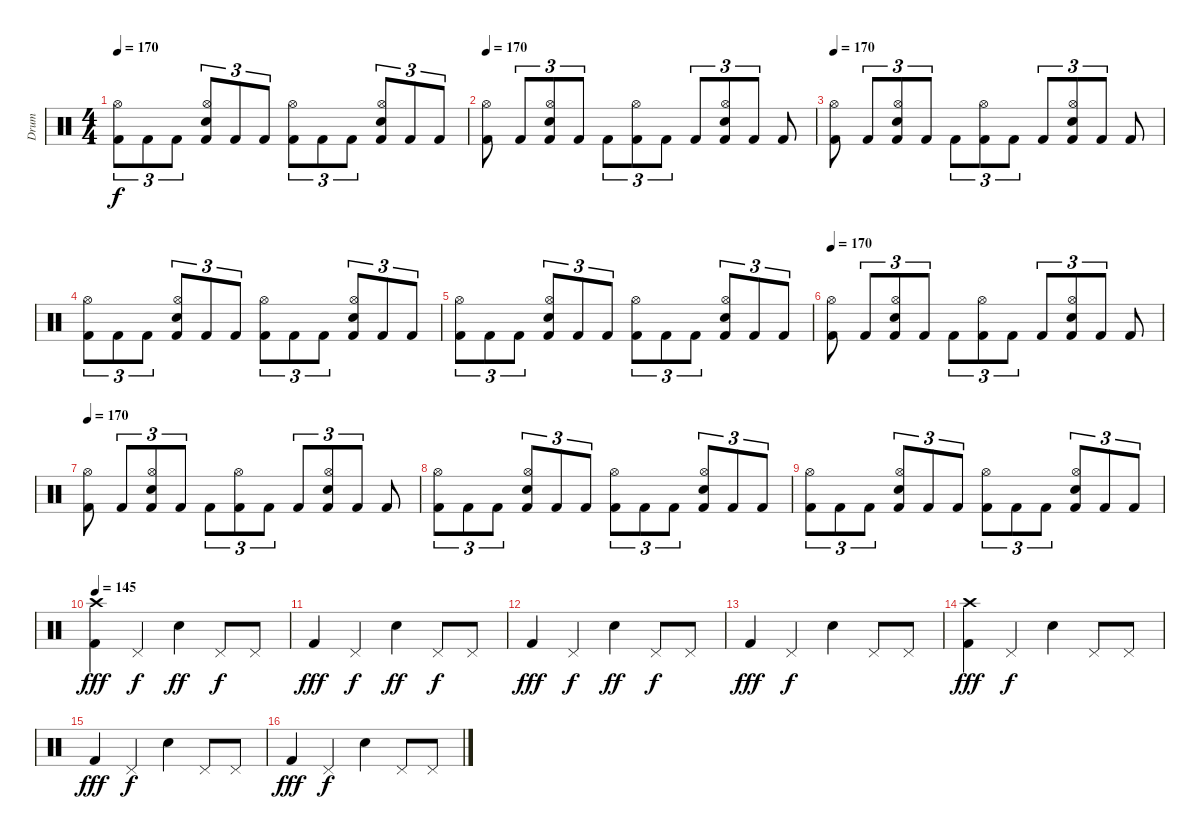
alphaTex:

\track ("Drum" "Drum") {instrument percussion}
\staff {score}
\articulation defaults
\ts (4 4)
\tempo 170
\clef neutral
\ks c
("Kick (hit) 2" "Hi-Hat (open)").8{tu (3 2) dy f} "Kick (hit) 2".8{tu (3 2)} "Kick (hit) 2".8{tu (3 2)} ("Kick (hit) 2" "Electric Snare (hit)" "Hi-Hat (open)").8{tu (3 2)} "Kick (hit) 2".8{tu (3 2)} "Kick (hit) 2".8{tu (3 2)} ("Kick (hit) 2" "Hi-Hat (open)").8{tu (3 2)} "Kick (hit) 2".8{tu (3 2)} "Kick (hit) 2".8{tu (3 2)} ("Kick (hit) 2" "Electric Snare (hit)" "Hi-Hat (open)").8{tu (3 2)} "Kick (hit) 2".8{tu (3 2)} "Kick (hit) 2".8{tu (3 2)} |
\tempo 170
("Kick (hit) 2" "Hi-Hat (open)").8 "Kick (hit) 2".8{tu (3 2)} ("Kick (hit) 2" "Electric Snare (hit)" "Hi-Hat (open)").8{tu (3 2)} "Kick (hit) 2".8{tu (3 2)} "Kick (hit) 2".8{tu (3 2)} ("Kick (hit) 2" "Hi-Hat (open)").8{tu (3 2)} "Kick (hit) 2".8{tu (3 2)} "Kick (hit) 2".8{tu (3 2)} ("Kick (hit) 2" "Electric Snare (hit)" "Hi-Hat (open)").8{tu (3 2)} "Kick (hit) 2".8{tu (3 2)} "Kick (hit) 2".8 |
\tempo 170
("Kick (hit) 2" "Hi-Hat (open)").8 "Kick (hit) 2".8{tu (3 2)} ("Kick (hit) 2" "Electric Snare (hit)" "Hi-Hat (open)").8{tu (3 2)} "Kick (hit) 2".8{tu (3 2)} "Kick (hit) 2".8{tu (3 2)} ("Kick (hit) 2" "Hi-Hat (open)").8{tu (3 2)} "Kick (hit) 2".8{tu (3 2)} "Kick (hit) 2".8{tu (3 2)} ("Kick (hit) 2" "Electric Snare (hit)" "Hi-Hat (open)").8{tu (3 2)} "Kick (hit) 2".8{tu (3 2)} "Kick (hit) 2".8 |
("Kick (hit) 2" "Hi-Hat (open)").8{tu (3 2)} "Kick (hit) 2".8{tu (3 2)} "Kick (hit) 2".8{tu (3 2)} ("Kick (hit) 2" "Electric Snare (hit)" "Hi-Hat (open)").8{tu (3 2)} "Kick (hit) 2".8{tu (3 2)} "Kick (hit) 2".8{tu (3 2)} ("Kick (hit) 2" "Hi-Hat (open)").8{tu (3 2)} "Kick (hit) 2".8{tu (3 2)} "Kick (hit) 2".8{tu (3 2)} ("Kick (hit) 2" "Electric Snare (hit)" "Hi-Hat (open)").8{tu (3 2)} "Kick (hit) 2".8{tu (3 2)} "Kick (hit) 2".8{tu (3 2)} |
("Kick (hit) 2" "Hi-Hat (open)").8{tu (3 2)} "Kick (hit) 2".8{tu (3 2)} "Kick (hit) 2".8{tu (3 2)} ("Kick (hit) 2" "Electric Snare (hit)" "Hi-Hat (open)").8{tu (3 2)} "Kick (hit) 2".8{tu (3 2)} "Kick (hit) 2".8{tu (3 2)} ("Kick (hit) 2" "Hi-Hat (open)").8{tu (3 2)} "Kick (hit) 2".8{tu (3 2)} "Kick (hit) 2".8{tu (3 2)} ("Kick (hit) 2" "Electric Snare (hit)" "Hi-Hat (open)").8{tu (3 2)} "Kick (hit) 2".8{tu (3 2)} "Kick (hit) 2".8{tu (3 2)} |
\tempo 170
("Kick (hit) 2" "Hi-Hat (open)").8 "Kick (hit) 2".8{tu (3 2)} ("Kick (hit) 2" "Electric Snare (hit)" "Hi-Hat (open)").8{tu (3 2)} "Kick (hit) 2".8{tu (3 2)} "Kick (hit) 2".8{tu (3 2)} ("Kick (hit) 2" "Hi-Hat (open)").8{tu (3 2)} "Kick (hit) 2".8{tu (3 2)} "Kick (hit) 2".8{tu (3 2)} ("Kick (hit) 2" "Electric Snare (hit)" "Hi-Hat (open)").8{tu (3 2)} "Kick (hit) 2".8{tu (3 2)} "Kick (hit) 2".8 |
\tempo 170
("Kick (hit) 2" "Hi-Hat (open)").8 "Kick (hit) 2".8{tu (3 2)} ("Kick (hit) 2" "Electric Snare (hit)" "Hi-Hat (open)").8{tu (3 2)} "Kick (hit) 2".8{tu (3 2)} "Kick (hit) 2".8{tu (3 2)} ("Kick (hit) 2" "Hi-Hat (open)").8{tu (3 2)} "Kick (hit) 2".8{tu (3 2)} "Kick (hit) 2".8{tu (3 2)} ("Kick (hit) 2" "Electric Snare (hit)" "Hi-Hat (open)").8{tu (3 2)} "Kick (hit) 2".8{tu (3 2)} "Kick (hit) 2".8 |
("Kick (hit) 2" "Hi-Hat (open)").8{tu (3 2)} "Kick (hit) 2".8{tu (3 2)} "Kick (hit) 2".8{tu (3 2)} ("Kick (hit) 2" "Electric Snare (hit)" "Hi-Hat (open)").8{tu (3 2)} "Kick (hit) 2".8{tu (3 2)} "Kick (hit) 2".8{tu (3 2)} ("Kick (hit) 2" "Hi-Hat (open)").8{tu (3 2)} "Kick (hit) 2".8{tu (3 2)} "Kick (hit) 2".8{tu (3 2)} ("Kick (hit) 2" "Electric Snare (hit)" "Hi-Hat (open)").8{tu (3 2)} "Kick (hit) 2".8{tu (3 2)} "Kick (hit) 2".8{tu (3 2)} |
("Kick (hit) 2" "Hi-Hat (open)").8{tu (3 2)} "Kick (hit) 2".8{tu (3 2)} "Kick (hit) 2".8{tu (3 2)} ("Kick (hit) 2" "Electric Snare (hit)" "Hi-Hat (open)").8{tu (3 2)} "Kick (hit) 2".8{tu (3 2)} "Kick (hit) 2".8{tu (3 2)} ("Kick (hit) 2" "Hi-Hat (open)").8{tu (3 2)} "Kick (hit) 2".8{tu (3 2)} "Kick (hit) 2".8{tu (3 2)} ("Kick (hit) 2" "Electric Snare (hit)" "Hi-Hat (open)").8{tu (3 2)} "Kick (hit) 2".8{tu (3 2)} "Kick (hit) 2".8{tu (3 2)} |
\tempo 145
("Crash high (hit)" "Kick (hit) 2").4{dy fff} "Pedal Hi-Hat (hit)".4{dy f} "Electric Snare (hit)".4{dy ff} "Pedal Hi-Hat (hit)".8{dy f} "Pedal Hi-Hat (hit)".8 |
"Kick (hit) 2".4{dy fff} "Pedal Hi-Hat (hit)".4{dy f} "Electric Snare (hit)".4{dy ff} "Pedal Hi-Hat (hit)".8{dy f} "Pedal Hi-Hat (hit)".8 |
"Kick (hit) 2".4{dy fff} "Pedal Hi-Hat (hit)".4{dy f} "Electric Snare (hit)".4{dy ff} "Pedal Hi-Hat (hit)".8{dy f} "Pedal Hi-Hat (hit)".8 |
"Kick (hit) 2".4{dy fff} "Pedal Hi-Hat (hit)".4{dy f} "Electric Snare (hit)".4 "Pedal Hi-Hat (hit)".8 "Pedal Hi-Hat (hit)".8 |
("Crash high (hit)" "Kick (hit) 2").4{dy fff} "Pedal Hi-Hat (hit)".4{dy f} "Electric Snare (hit)".4 "Pedal Hi-Hat (hit)".8 "Pedal Hi-Hat (hit)".8 |
"Kick (hit) 2".4{dy fff} "Pedal Hi-Hat (hit)".4{dy f} "Electric Snare (hit)".4 "Pedal Hi-Hat (hit)".8 "Pedal Hi-Hat (hit)".8 |
"Kick (hit) 2".4{dy fff} "Pedal Hi-Hat (hit)".4{dy f} "Electric Snare (hit)".4 "Pedal Hi-Hat (hit)".8 "Pedal Hi-Hat (hit)".8
